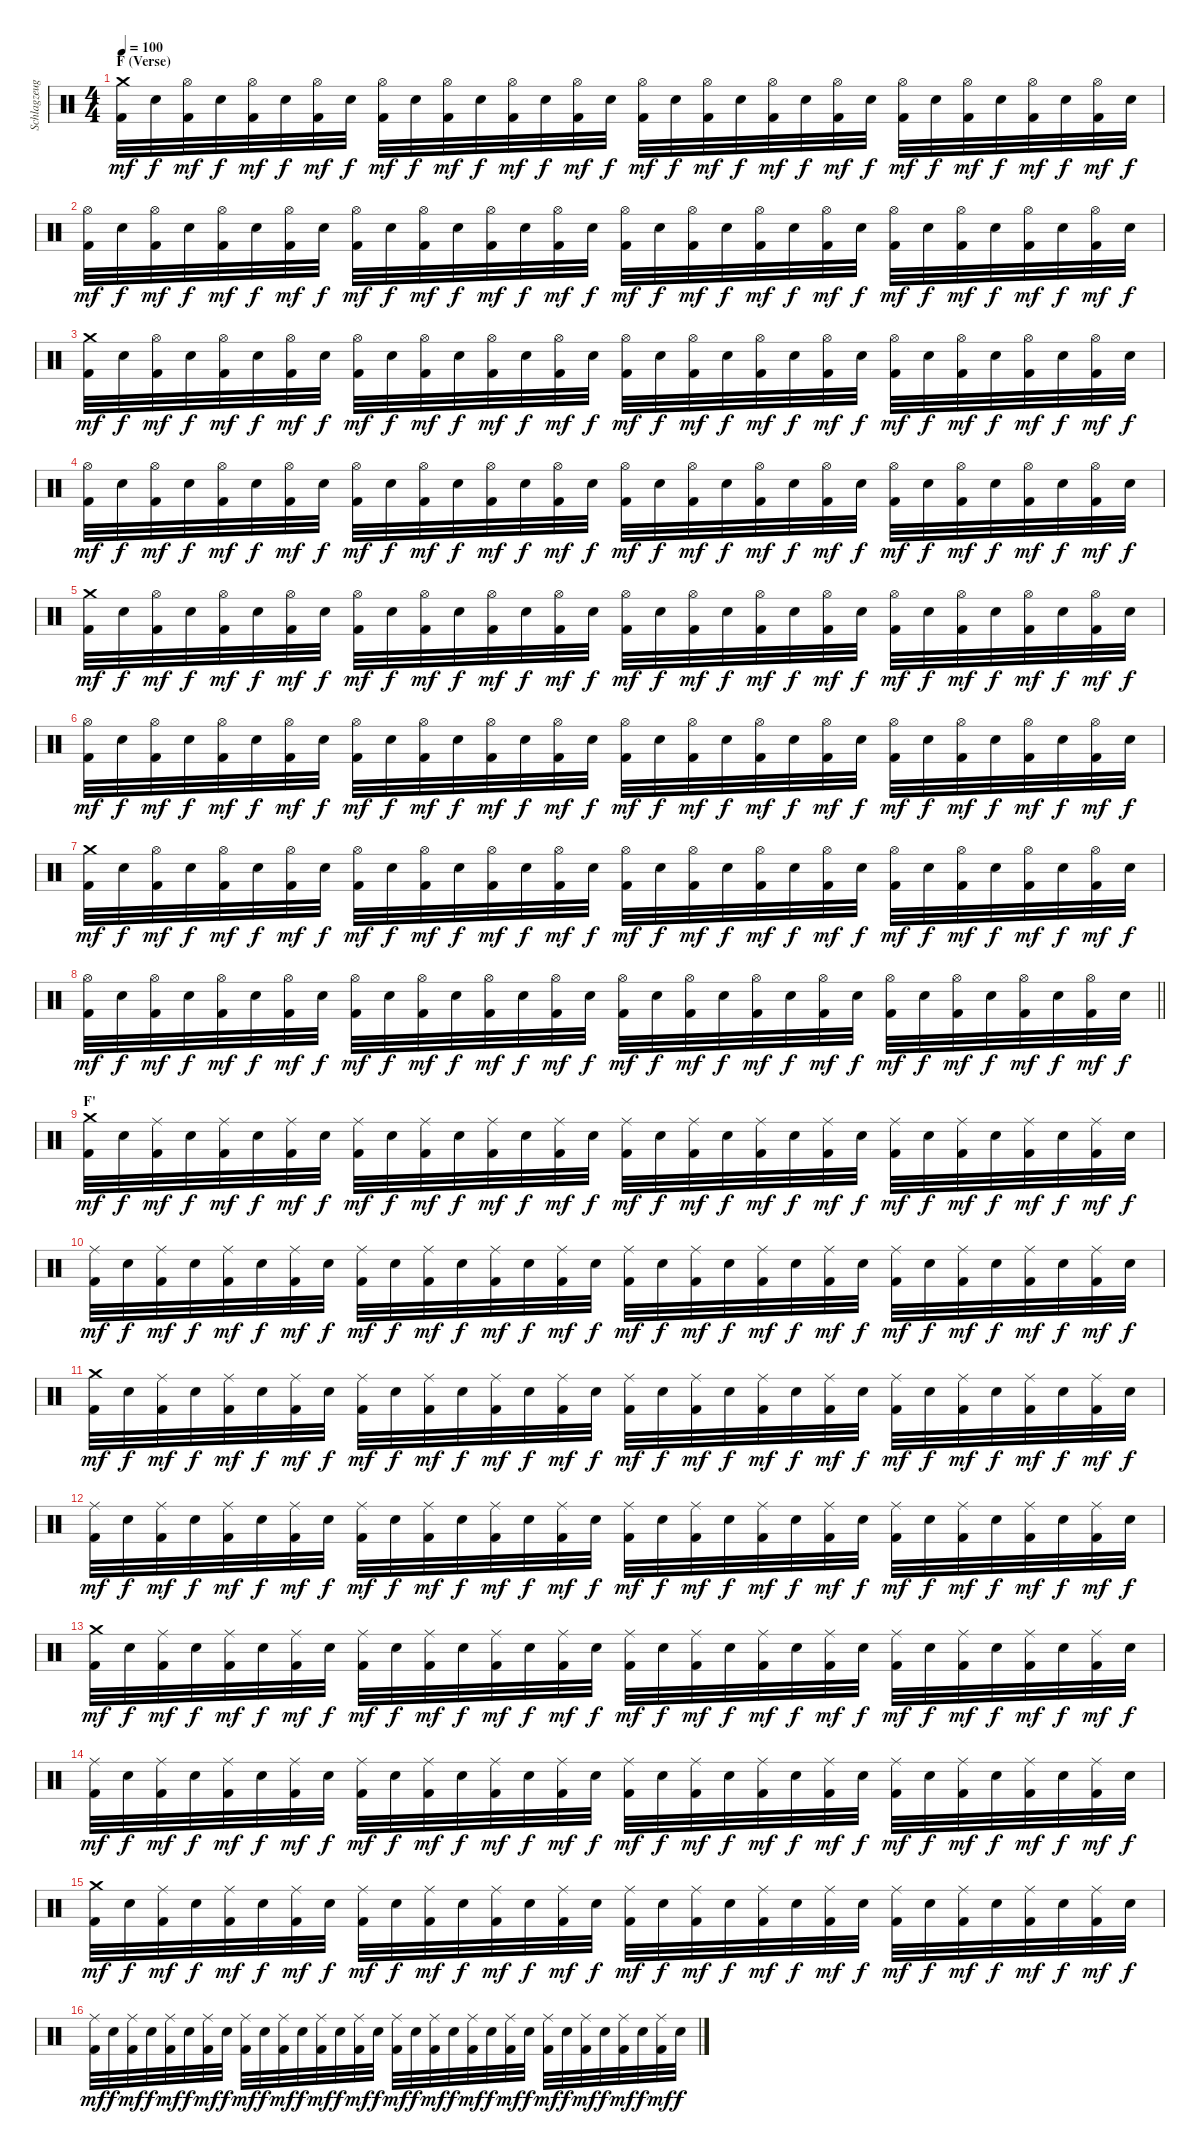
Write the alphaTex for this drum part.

\track ("Schlagzeug" "Schlagzeug") {instrument percussion}
\staff {score}
\articulation defaults
\ts (4 4)
\section ("" "F (Verse)")
\tempo 100
\clef neutral
\ks c
("Crash medium (hit)" "Kick (hit) 2").32{dy mf} "Electric Snare (hit)".32{dy f} ("Hi-Hat (open)" "Kick (hit) 2").32{dy mf} "Electric Snare (hit)".32{dy f} ("Hi-Hat (open)" "Kick (hit) 2").32{dy mf} "Electric Snare (hit)".32{dy f} ("Hi-Hat (open)" "Kick (hit) 2").32{dy mf} "Electric Snare (hit)".32{dy f} ("Hi-Hat (open)" "Kick (hit) 2").32{dy mf} "Electric Snare (hit)".32{dy f} ("Hi-Hat (open)" "Kick (hit) 2").32{dy mf} "Electric Snare (hit)".32{dy f} ("Hi-Hat (open)" "Kick (hit) 2").32{dy mf} "Electric Snare (hit)".32{dy f} ("Hi-Hat (open)" "Kick (hit) 2").32{dy mf} "Electric Snare (hit)".32{dy f} ("Hi-Hat (open)" "Kick (hit) 2").32{dy mf} "Electric Snare (hit)".32{dy f} ("Hi-Hat (open)" "Kick (hit) 2").32{dy mf} "Electric Snare (hit)".32{dy f} ("Hi-Hat (open)" "Kick (hit) 2").32{dy mf} "Electric Snare (hit)".32{dy f} ("Hi-Hat (open)" "Kick (hit) 2").32{dy mf} "Electric Snare (hit)".32{dy f} ("Hi-Hat (open)" "Kick (hit) 2").32{dy mf} "Electric Snare (hit)".32{dy f} ("Hi-Hat (open)" "Kick (hit) 2").32{dy mf} "Electric Snare (hit)".32{dy f} ("Hi-Hat (open)" "Kick (hit) 2").32{dy mf} "Electric Snare (hit)".32{dy f} ("Hi-Hat (open)" "Kick (hit) 2").32{dy mf} "Electric Snare (hit)".32{dy f} |
("Hi-Hat (open)" "Kick (hit) 2").32{dy mf} "Electric Snare (hit)".32{dy f} ("Hi-Hat (open)" "Kick (hit) 2").32{dy mf} "Electric Snare (hit)".32{dy f} ("Hi-Hat (open)" "Kick (hit) 2").32{dy mf} "Electric Snare (hit)".32{dy f} ("Hi-Hat (open)" "Kick (hit) 2").32{dy mf} "Electric Snare (hit)".32{dy f} ("Hi-Hat (open)" "Kick (hit) 2").32{dy mf} "Electric Snare (hit)".32{dy f} ("Hi-Hat (open)" "Kick (hit) 2").32{dy mf} "Electric Snare (hit)".32{dy f} ("Hi-Hat (open)" "Kick (hit) 2").32{dy mf} "Electric Snare (hit)".32{dy f} ("Hi-Hat (open)" "Kick (hit) 2").32{dy mf} "Electric Snare (hit)".32{dy f} ("Hi-Hat (open)" "Kick (hit) 2").32{dy mf} "Electric Snare (hit)".32{dy f} ("Hi-Hat (open)" "Kick (hit) 2").32{dy mf} "Electric Snare (hit)".32{dy f} ("Hi-Hat (open)" "Kick (hit) 2").32{dy mf} "Electric Snare (hit)".32{dy f} ("Hi-Hat (open)" "Kick (hit) 2").32{dy mf} "Electric Snare (hit)".32{dy f} ("Hi-Hat (open)" "Kick (hit) 2").32{dy mf} "Electric Snare (hit)".32{dy f} ("Hi-Hat (open)" "Kick (hit) 2").32{dy mf} "Electric Snare (hit)".32{dy f} ("Hi-Hat (open)" "Kick (hit) 2").32{dy mf} "Electric Snare (hit)".32{dy f} ("Hi-Hat (open)" "Kick (hit) 2").32{dy mf} "Electric Snare (hit)".32{dy f} |
("Crash medium (hit)" "Kick (hit) 2").32{dy mf} "Electric Snare (hit)".32{dy f} ("Hi-Hat (open)" "Kick (hit) 2").32{dy mf} "Electric Snare (hit)".32{dy f} ("Hi-Hat (open)" "Kick (hit) 2").32{dy mf} "Electric Snare (hit)".32{dy f} ("Hi-Hat (open)" "Kick (hit) 2").32{dy mf} "Electric Snare (hit)".32{dy f} ("Hi-Hat (open)" "Kick (hit) 2").32{dy mf} "Electric Snare (hit)".32{dy f} ("Hi-Hat (open)" "Kick (hit) 2").32{dy mf} "Electric Snare (hit)".32{dy f} ("Hi-Hat (open)" "Kick (hit) 2").32{dy mf} "Electric Snare (hit)".32{dy f} ("Hi-Hat (open)" "Kick (hit) 2").32{dy mf} "Electric Snare (hit)".32{dy f} ("Hi-Hat (open)" "Kick (hit) 2").32{dy mf} "Electric Snare (hit)".32{dy f} ("Hi-Hat (open)" "Kick (hit) 2").32{dy mf} "Electric Snare (hit)".32{dy f} ("Hi-Hat (open)" "Kick (hit) 2").32{dy mf} "Electric Snare (hit)".32{dy f} ("Hi-Hat (open)" "Kick (hit) 2").32{dy mf} "Electric Snare (hit)".32{dy f} ("Hi-Hat (open)" "Kick (hit) 2").32{dy mf} "Electric Snare (hit)".32{dy f} ("Hi-Hat (open)" "Kick (hit) 2").32{dy mf} "Electric Snare (hit)".32{dy f} ("Hi-Hat (open)" "Kick (hit) 2").32{dy mf} "Electric Snare (hit)".32{dy f} ("Hi-Hat (open)" "Kick (hit) 2").32{dy mf} "Electric Snare (hit)".32{dy f} |
("Hi-Hat (open)" "Kick (hit) 2").32{dy mf} "Electric Snare (hit)".32{dy f} ("Hi-Hat (open)" "Kick (hit) 2").32{dy mf} "Electric Snare (hit)".32{dy f} ("Hi-Hat (open)" "Kick (hit) 2").32{dy mf} "Electric Snare (hit)".32{dy f} ("Hi-Hat (open)" "Kick (hit) 2").32{dy mf} "Electric Snare (hit)".32{dy f} ("Hi-Hat (open)" "Kick (hit) 2").32{dy mf} "Electric Snare (hit)".32{dy f} ("Hi-Hat (open)" "Kick (hit) 2").32{dy mf} "Electric Snare (hit)".32{dy f} ("Hi-Hat (open)" "Kick (hit) 2").32{dy mf} "Electric Snare (hit)".32{dy f} ("Hi-Hat (open)" "Kick (hit) 2").32{dy mf} "Electric Snare (hit)".32{dy f} ("Hi-Hat (open)" "Kick (hit) 2").32{dy mf} "Electric Snare (hit)".32{dy f} ("Hi-Hat (open)" "Kick (hit) 2").32{dy mf} "Electric Snare (hit)".32{dy f} ("Hi-Hat (open)" "Kick (hit) 2").32{dy mf} "Electric Snare (hit)".32{dy f} ("Hi-Hat (open)" "Kick (hit) 2").32{dy mf} "Electric Snare (hit)".32{dy f} ("Hi-Hat (open)" "Kick (hit) 2").32{dy mf} "Electric Snare (hit)".32{dy f} ("Hi-Hat (open)" "Kick (hit) 2").32{dy mf} "Electric Snare (hit)".32{dy f} ("Hi-Hat (open)" "Kick (hit) 2").32{dy mf} "Electric Snare (hit)".32{dy f} ("Hi-Hat (open)" "Kick (hit) 2").32{dy mf} "Electric Snare (hit)".32{dy f} |
("Crash medium (hit)" "Kick (hit) 2").32{dy mf} "Electric Snare (hit)".32{dy f} ("Hi-Hat (open)" "Kick (hit) 2").32{dy mf} "Electric Snare (hit)".32{dy f} ("Hi-Hat (open)" "Kick (hit) 2").32{dy mf} "Electric Snare (hit)".32{dy f} ("Hi-Hat (open)" "Kick (hit) 2").32{dy mf} "Electric Snare (hit)".32{dy f} ("Hi-Hat (open)" "Kick (hit) 2").32{dy mf} "Electric Snare (hit)".32{dy f} ("Hi-Hat (open)" "Kick (hit) 2").32{dy mf} "Electric Snare (hit)".32{dy f} ("Hi-Hat (open)" "Kick (hit) 2").32{dy mf} "Electric Snare (hit)".32{dy f} ("Hi-Hat (open)" "Kick (hit) 2").32{dy mf} "Electric Snare (hit)".32{dy f} ("Hi-Hat (open)" "Kick (hit) 2").32{dy mf} "Electric Snare (hit)".32{dy f} ("Hi-Hat (open)" "Kick (hit) 2").32{dy mf} "Electric Snare (hit)".32{dy f} ("Hi-Hat (open)" "Kick (hit) 2").32{dy mf} "Electric Snare (hit)".32{dy f} ("Hi-Hat (open)" "Kick (hit) 2").32{dy mf} "Electric Snare (hit)".32{dy f} ("Hi-Hat (open)" "Kick (hit) 2").32{dy mf} "Electric Snare (hit)".32{dy f} ("Hi-Hat (open)" "Kick (hit) 2").32{dy mf} "Electric Snare (hit)".32{dy f} ("Hi-Hat (open)" "Kick (hit) 2").32{dy mf} "Electric Snare (hit)".32{dy f} ("Hi-Hat (open)" "Kick (hit) 2").32{dy mf} "Electric Snare (hit)".32{dy f} |
("Hi-Hat (open)" "Kick (hit) 2").32{dy mf} "Electric Snare (hit)".32{dy f} ("Hi-Hat (open)" "Kick (hit) 2").32{dy mf} "Electric Snare (hit)".32{dy f} ("Hi-Hat (open)" "Kick (hit) 2").32{dy mf} "Electric Snare (hit)".32{dy f} ("Hi-Hat (open)" "Kick (hit) 2").32{dy mf} "Electric Snare (hit)".32{dy f} ("Hi-Hat (open)" "Kick (hit) 2").32{dy mf} "Electric Snare (hit)".32{dy f} ("Hi-Hat (open)" "Kick (hit) 2").32{dy mf} "Electric Snare (hit)".32{dy f} ("Hi-Hat (open)" "Kick (hit) 2").32{dy mf} "Electric Snare (hit)".32{dy f} ("Hi-Hat (open)" "Kick (hit) 2").32{dy mf} "Electric Snare (hit)".32{dy f} ("Hi-Hat (open)" "Kick (hit) 2").32{dy mf} "Electric Snare (hit)".32{dy f} ("Hi-Hat (open)" "Kick (hit) 2").32{dy mf} "Electric Snare (hit)".32{dy f} ("Hi-Hat (open)" "Kick (hit) 2").32{dy mf} "Electric Snare (hit)".32{dy f} ("Hi-Hat (open)" "Kick (hit) 2").32{dy mf} "Electric Snare (hit)".32{dy f} ("Hi-Hat (open)" "Kick (hit) 2").32{dy mf} "Electric Snare (hit)".32{dy f} ("Hi-Hat (open)" "Kick (hit) 2").32{dy mf} "Electric Snare (hit)".32{dy f} ("Hi-Hat (open)" "Kick (hit) 2").32{dy mf} "Electric Snare (hit)".32{dy f} ("Hi-Hat (open)" "Kick (hit) 2").32{dy mf} "Electric Snare (hit)".32{dy f} |
("Crash medium (hit)" "Kick (hit) 2").32{dy mf} "Electric Snare (hit)".32{dy f} ("Hi-Hat (open)" "Kick (hit) 2").32{dy mf} "Electric Snare (hit)".32{dy f} ("Hi-Hat (open)" "Kick (hit) 2").32{dy mf} "Electric Snare (hit)".32{dy f} ("Hi-Hat (open)" "Kick (hit) 2").32{dy mf} "Electric Snare (hit)".32{dy f} ("Hi-Hat (open)" "Kick (hit) 2").32{dy mf} "Electric Snare (hit)".32{dy f} ("Hi-Hat (open)" "Kick (hit) 2").32{dy mf} "Electric Snare (hit)".32{dy f} ("Hi-Hat (open)" "Kick (hit) 2").32{dy mf} "Electric Snare (hit)".32{dy f} ("Hi-Hat (open)" "Kick (hit) 2").32{dy mf} "Electric Snare (hit)".32{dy f} ("Hi-Hat (open)" "Kick (hit) 2").32{dy mf} "Electric Snare (hit)".32{dy f} ("Hi-Hat (open)" "Kick (hit) 2").32{dy mf} "Electric Snare (hit)".32{dy f} ("Hi-Hat (open)" "Kick (hit) 2").32{dy mf} "Electric Snare (hit)".32{dy f} ("Hi-Hat (open)" "Kick (hit) 2").32{dy mf} "Electric Snare (hit)".32{dy f} ("Hi-Hat (open)" "Kick (hit) 2").32{dy mf} "Electric Snare (hit)".32{dy f} ("Hi-Hat (open)" "Kick (hit) 2").32{dy mf} "Electric Snare (hit)".32{dy f} ("Hi-Hat (open)" "Kick (hit) 2").32{dy mf} "Electric Snare (hit)".32{dy f} ("Hi-Hat (open)" "Kick (hit) 2").32{dy mf} "Electric Snare (hit)".32{dy f} |
\barLineRight lightlight
("Hi-Hat (open)" "Kick (hit) 2").32{dy mf} "Electric Snare (hit)".32{dy f} ("Hi-Hat (open)" "Kick (hit) 2").32{dy mf} "Electric Snare (hit)".32{dy f} ("Hi-Hat (open)" "Kick (hit) 2").32{dy mf} "Electric Snare (hit)".32{dy f} ("Hi-Hat (open)" "Kick (hit) 2").32{dy mf} "Electric Snare (hit)".32{dy f} ("Hi-Hat (open)" "Kick (hit) 2").32{dy mf} "Electric Snare (hit)".32{dy f} ("Hi-Hat (open)" "Kick (hit) 2").32{dy mf} "Electric Snare (hit)".32{dy f} ("Hi-Hat (open)" "Kick (hit) 2").32{dy mf} "Electric Snare (hit)".32{dy f} ("Hi-Hat (open)" "Kick (hit) 2").32{dy mf} "Electric Snare (hit)".32{dy f} ("Hi-Hat (open)" "Kick (hit) 2").32{dy mf} "Electric Snare (hit)".32{dy f} ("Hi-Hat (open)" "Kick (hit) 2").32{dy mf} "Electric Snare (hit)".32{dy f} ("Hi-Hat (open)" "Kick (hit) 2").32{dy mf} "Electric Snare (hit)".32{dy f} ("Hi-Hat (open)" "Kick (hit) 2").32{dy mf} "Electric Snare (hit)".32{dy f} ("Hi-Hat (open)" "Kick (hit) 2").32{dy mf} "Electric Snare (hit)".32{dy f} ("Hi-Hat (open)" "Kick (hit) 2").32{dy mf} "Electric Snare (hit)".32{dy f} ("Hi-Hat (open)" "Kick (hit) 2").32{dy mf} "Electric Snare (hit)".32{dy f} ("Hi-Hat (open)" "Kick (hit) 2").32{dy mf} "Electric Snare (hit)".32{dy f} |
\section ("" "F'")
("Crash medium (hit)" "Kick (hit) 2").32{dy mf} "Electric Snare (hit)".32{dy f} ("Ride (middle)" "Kick (hit) 2").32{dy mf} "Electric Snare (hit)".32{dy f} ("Ride (middle)" "Kick (hit) 2").32{dy mf} "Electric Snare (hit)".32{dy f} ("Ride (middle)" "Kick (hit) 2").32{dy mf} "Electric Snare (hit)".32{dy f} ("Ride (middle)" "Kick (hit) 2").32{dy mf} "Electric Snare (hit)".32{dy f} ("Ride (middle)" "Kick (hit) 2").32{dy mf} "Electric Snare (hit)".32{dy f} ("Ride (middle)" "Kick (hit) 2").32{dy mf} "Electric Snare (hit)".32{dy f} ("Ride (middle)" "Kick (hit) 2").32{dy mf} "Electric Snare (hit)".32{dy f} ("Ride (middle)" "Kick (hit) 2").32{dy mf} "Electric Snare (hit)".32{dy f} ("Ride (middle)" "Kick (hit) 2").32{dy mf} "Electric Snare (hit)".32{dy f} ("Ride (middle)" "Kick (hit) 2").32{dy mf} "Electric Snare (hit)".32{dy f} ("Ride (middle)" "Kick (hit) 2").32{dy mf} "Electric Snare (hit)".32{dy f} ("Ride (middle)" "Kick (hit) 2").32{dy mf} "Electric Snare (hit)".32{dy f} ("Ride (middle)" "Kick (hit) 2").32{dy mf} "Electric Snare (hit)".32{dy f} ("Ride (middle)" "Kick (hit) 2").32{dy mf} "Electric Snare (hit)".32{dy f} ("Ride (middle)" "Kick (hit) 2").32{dy mf} "Electric Snare (hit)".32{dy f} |
("Ride (middle)" "Kick (hit) 2").32{dy mf} "Electric Snare (hit)".32{dy f} ("Ride (middle)" "Kick (hit) 2").32{dy mf} "Electric Snare (hit)".32{dy f} ("Ride (middle)" "Kick (hit) 2").32{dy mf} "Electric Snare (hit)".32{dy f} ("Ride (middle)" "Kick (hit) 2").32{dy mf} "Electric Snare (hit)".32{dy f} ("Ride (middle)" "Kick (hit) 2").32{dy mf} "Electric Snare (hit)".32{dy f} ("Ride (middle)" "Kick (hit) 2").32{dy mf} "Electric Snare (hit)".32{dy f} ("Ride (middle)" "Kick (hit) 2").32{dy mf} "Electric Snare (hit)".32{dy f} ("Ride (middle)" "Kick (hit) 2").32{dy mf} "Electric Snare (hit)".32{dy f} ("Ride (middle)" "Kick (hit) 2").32{dy mf} "Electric Snare (hit)".32{dy f} ("Ride (middle)" "Kick (hit) 2").32{dy mf} "Electric Snare (hit)".32{dy f} ("Ride (middle)" "Kick (hit) 2").32{dy mf} "Electric Snare (hit)".32{dy f} ("Ride (middle)" "Kick (hit) 2").32{dy mf} "Electric Snare (hit)".32{dy f} ("Ride (middle)" "Kick (hit) 2").32{dy mf} "Electric Snare (hit)".32{dy f} ("Ride (middle)" "Kick (hit) 2").32{dy mf} "Electric Snare (hit)".32{dy f} ("Ride (middle)" "Kick (hit) 2").32{dy mf} "Electric Snare (hit)".32{dy f} ("Ride (middle)" "Kick (hit) 2").32{dy mf} "Electric Snare (hit)".32{dy f} |
("Crash medium (hit)" "Kick (hit) 2").32{dy mf} "Electric Snare (hit)".32{dy f} ("Ride (middle)" "Kick (hit) 2").32{dy mf} "Electric Snare (hit)".32{dy f} ("Ride (middle)" "Kick (hit) 2").32{dy mf} "Electric Snare (hit)".32{dy f} ("Ride (middle)" "Kick (hit) 2").32{dy mf} "Electric Snare (hit)".32{dy f} ("Ride (middle)" "Kick (hit) 2").32{dy mf} "Electric Snare (hit)".32{dy f} ("Ride (middle)" "Kick (hit) 2").32{dy mf} "Electric Snare (hit)".32{dy f} ("Ride (middle)" "Kick (hit) 2").32{dy mf} "Electric Snare (hit)".32{dy f} ("Ride (middle)" "Kick (hit) 2").32{dy mf} "Electric Snare (hit)".32{dy f} ("Ride (middle)" "Kick (hit) 2").32{dy mf} "Electric Snare (hit)".32{dy f} ("Ride (middle)" "Kick (hit) 2").32{dy mf} "Electric Snare (hit)".32{dy f} ("Ride (middle)" "Kick (hit) 2").32{dy mf} "Electric Snare (hit)".32{dy f} ("Ride (middle)" "Kick (hit) 2").32{dy mf} "Electric Snare (hit)".32{dy f} ("Ride (middle)" "Kick (hit) 2").32{dy mf} "Electric Snare (hit)".32{dy f} ("Ride (middle)" "Kick (hit) 2").32{dy mf} "Electric Snare (hit)".32{dy f} ("Ride (middle)" "Kick (hit) 2").32{dy mf} "Electric Snare (hit)".32{dy f} ("Ride (middle)" "Kick (hit) 2").32{dy mf} "Electric Snare (hit)".32{dy f} |
("Ride (middle)" "Kick (hit) 2").32{dy mf} "Electric Snare (hit)".32{dy f} ("Ride (middle)" "Kick (hit) 2").32{dy mf} "Electric Snare (hit)".32{dy f} ("Ride (middle)" "Kick (hit) 2").32{dy mf} "Electric Snare (hit)".32{dy f} ("Ride (middle)" "Kick (hit) 2").32{dy mf} "Electric Snare (hit)".32{dy f} ("Ride (middle)" "Kick (hit) 2").32{dy mf} "Electric Snare (hit)".32{dy f} ("Ride (middle)" "Kick (hit) 2").32{dy mf} "Electric Snare (hit)".32{dy f} ("Ride (middle)" "Kick (hit) 2").32{dy mf} "Electric Snare (hit)".32{dy f} ("Ride (middle)" "Kick (hit) 2").32{dy mf} "Electric Snare (hit)".32{dy f} ("Ride (middle)" "Kick (hit) 2").32{dy mf} "Electric Snare (hit)".32{dy f} ("Ride (middle)" "Kick (hit) 2").32{dy mf} "Electric Snare (hit)".32{dy f} ("Ride (middle)" "Kick (hit) 2").32{dy mf} "Electric Snare (hit)".32{dy f} ("Ride (middle)" "Kick (hit) 2").32{dy mf} "Electric Snare (hit)".32{dy f} ("Ride (middle)" "Kick (hit) 2").32{dy mf} "Electric Snare (hit)".32{dy f} ("Ride (middle)" "Kick (hit) 2").32{dy mf} "Electric Snare (hit)".32{dy f} ("Ride (middle)" "Kick (hit) 2").32{dy mf} "Electric Snare (hit)".32{dy f} ("Ride (middle)" "Kick (hit) 2").32{dy mf} "Electric Snare (hit)".32{dy f} |
("Crash medium (hit)" "Kick (hit) 2").32{dy mf} "Electric Snare (hit)".32{dy f} ("Ride (middle)" "Kick (hit) 2").32{dy mf} "Electric Snare (hit)".32{dy f} ("Ride (middle)" "Kick (hit) 2").32{dy mf} "Electric Snare (hit)".32{dy f} ("Ride (middle)" "Kick (hit) 2").32{dy mf} "Electric Snare (hit)".32{dy f} ("Ride (middle)" "Kick (hit) 2").32{dy mf} "Electric Snare (hit)".32{dy f} ("Ride (middle)" "Kick (hit) 2").32{dy mf} "Electric Snare (hit)".32{dy f} ("Ride (middle)" "Kick (hit) 2").32{dy mf} "Electric Snare (hit)".32{dy f} ("Ride (middle)" "Kick (hit) 2").32{dy mf} "Electric Snare (hit)".32{dy f} ("Ride (middle)" "Kick (hit) 2").32{dy mf} "Electric Snare (hit)".32{dy f} ("Ride (middle)" "Kick (hit) 2").32{dy mf} "Electric Snare (hit)".32{dy f} ("Ride (middle)" "Kick (hit) 2").32{dy mf} "Electric Snare (hit)".32{dy f} ("Ride (middle)" "Kick (hit) 2").32{dy mf} "Electric Snare (hit)".32{dy f} ("Ride (middle)" "Kick (hit) 2").32{dy mf} "Electric Snare (hit)".32{dy f} ("Ride (middle)" "Kick (hit) 2").32{dy mf} "Electric Snare (hit)".32{dy f} ("Ride (middle)" "Kick (hit) 2").32{dy mf} "Electric Snare (hit)".32{dy f} ("Ride (middle)" "Kick (hit) 2").32{dy mf} "Electric Snare (hit)".32{dy f} |
("Ride (middle)" "Kick (hit) 2").32{dy mf} "Electric Snare (hit)".32{dy f} ("Ride (middle)" "Kick (hit) 2").32{dy mf} "Electric Snare (hit)".32{dy f} ("Ride (middle)" "Kick (hit) 2").32{dy mf} "Electric Snare (hit)".32{dy f} ("Ride (middle)" "Kick (hit) 2").32{dy mf} "Electric Snare (hit)".32{dy f} ("Ride (middle)" "Kick (hit) 2").32{dy mf} "Electric Snare (hit)".32{dy f} ("Ride (middle)" "Kick (hit) 2").32{dy mf} "Electric Snare (hit)".32{dy f} ("Ride (middle)" "Kick (hit) 2").32{dy mf} "Electric Snare (hit)".32{dy f} ("Ride (middle)" "Kick (hit) 2").32{dy mf} "Electric Snare (hit)".32{dy f} ("Ride (middle)" "Kick (hit) 2").32{dy mf} "Electric Snare (hit)".32{dy f} ("Ride (middle)" "Kick (hit) 2").32{dy mf} "Electric Snare (hit)".32{dy f} ("Ride (middle)" "Kick (hit) 2").32{dy mf} "Electric Snare (hit)".32{dy f} ("Ride (middle)" "Kick (hit) 2").32{dy mf} "Electric Snare (hit)".32{dy f} ("Ride (middle)" "Kick (hit) 2").32{dy mf} "Electric Snare (hit)".32{dy f} ("Ride (middle)" "Kick (hit) 2").32{dy mf} "Electric Snare (hit)".32{dy f} ("Ride (middle)" "Kick (hit) 2").32{dy mf} "Electric Snare (hit)".32{dy f} ("Ride (middle)" "Kick (hit) 2").32{dy mf} "Electric Snare (hit)".32{dy f} |
("Crash medium (hit)" "Kick (hit) 2").32{dy mf} "Electric Snare (hit)".32{dy f} ("Ride (middle)" "Kick (hit) 2").32{dy mf} "Electric Snare (hit)".32{dy f} ("Ride (middle)" "Kick (hit) 2").32{dy mf} "Electric Snare (hit)".32{dy f} ("Ride (middle)" "Kick (hit) 2").32{dy mf} "Electric Snare (hit)".32{dy f} ("Ride (middle)" "Kick (hit) 2").32{dy mf} "Electric Snare (hit)".32{dy f} ("Ride (middle)" "Kick (hit) 2").32{dy mf} "Electric Snare (hit)".32{dy f} ("Ride (middle)" "Kick (hit) 2").32{dy mf} "Electric Snare (hit)".32{dy f} ("Ride (middle)" "Kick (hit) 2").32{dy mf} "Electric Snare (hit)".32{dy f} ("Ride (middle)" "Kick (hit) 2").32{dy mf} "Electric Snare (hit)".32{dy f} ("Ride (middle)" "Kick (hit) 2").32{dy mf} "Electric Snare (hit)".32{dy f} ("Ride (middle)" "Kick (hit) 2").32{dy mf} "Electric Snare (hit)".32{dy f} ("Ride (middle)" "Kick (hit) 2").32{dy mf} "Electric Snare (hit)".32{dy f} ("Ride (middle)" "Kick (hit) 2").32{dy mf} "Electric Snare (hit)".32{dy f} ("Ride (middle)" "Kick (hit) 2").32{dy mf} "Electric Snare (hit)".32{dy f} ("Ride (middle)" "Kick (hit) 2").32{dy mf} "Electric Snare (hit)".32{dy f} ("Ride (middle)" "Kick (hit) 2").32{dy mf} "Electric Snare (hit)".32{dy f} |
("Ride (middle)" "Kick (hit) 2").32{dy mf} "Electric Snare (hit)".32{dy f} ("Ride (middle)" "Kick (hit) 2").32{dy mf} "Electric Snare (hit)".32{dy f} ("Ride (middle)" "Kick (hit) 2").32{dy mf} "Electric Snare (hit)".32{dy f} ("Ride (middle)" "Kick (hit) 2").32{dy mf} "Electric Snare (hit)".32{dy f} ("Ride (middle)" "Kick (hit) 2").32{dy mf} "Electric Snare (hit)".32{dy f} ("Ride (middle)" "Kick (hit) 2").32{dy mf} "Electric Snare (hit)".32{dy f} ("Ride (middle)" "Kick (hit) 2").32{dy mf} "Electric Snare (hit)".32{dy f} ("Ride (middle)" "Kick (hit) 2").32{dy mf} "Electric Snare (hit)".32{dy f} ("Ride (middle)" "Kick (hit) 2").32{dy mf} "Electric Snare (hit)".32{dy f} ("Ride (middle)" "Kick (hit) 2").32{dy mf} "Electric Snare (hit)".32{dy f} ("Ride (middle)" "Kick (hit) 2").32{dy mf} "Electric Snare (hit)".32{dy f} ("Ride (middle)" "Kick (hit) 2").32{dy mf} "Electric Snare (hit)".32{dy f} ("Ride (middle)" "Kick (hit) 2").32{dy mf} "Electric Snare (hit)".32{dy f} ("Ride (middle)" "Kick (hit) 2").32{dy mf} "Electric Snare (hit)".32{dy f} ("Ride (middle)" "Kick (hit) 2").32{dy mf} "Electric Snare (hit)".32{dy f} ("Ride (middle)" "Kick (hit) 2").32{dy mf} "Electric Snare (hit)".32{dy f}
